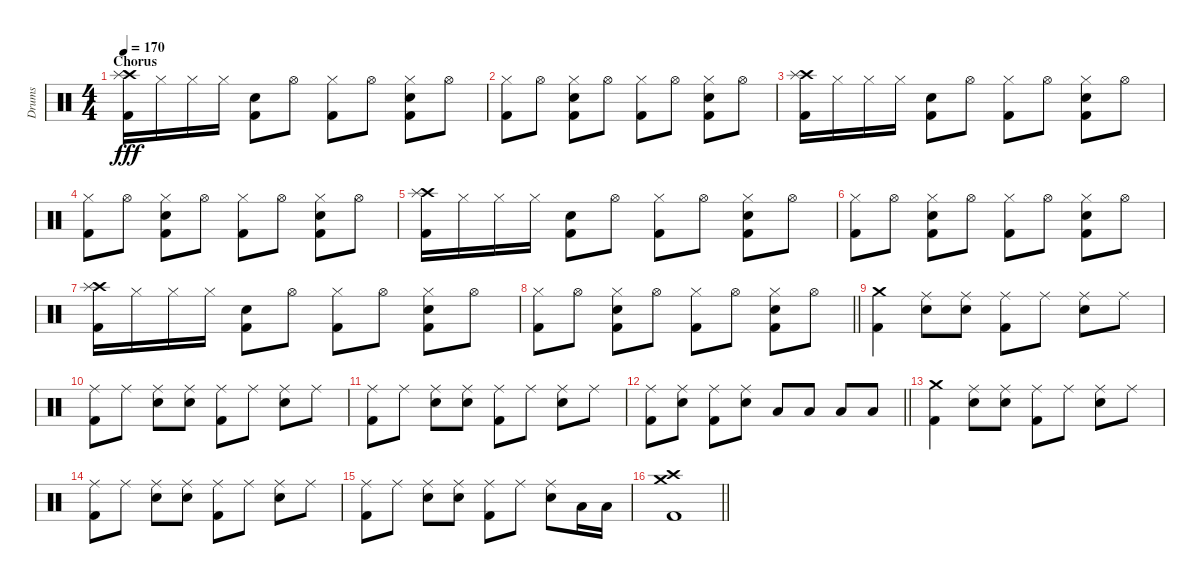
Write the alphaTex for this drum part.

\track ("Drums" "Drums") {instrument percussion}
\staff {score}
\articulation defaults
\ts (4 4)
\section ("" "Chorus")
\tempo 170
\clef neutral
\ks c
("Crash high (hit)" "Kick (hit) 2" "Splash (hit)").16{dy fff} "Hi-Hat (closed)".16 "Hi-Hat (closed)".16 "Hi-Hat (closed)".16 ("Electric Snare (hit)" "Kick (hit) 2").8 "Hi-Hat (open)".8 ("Hi-Hat (closed)" "Kick (hit) 2").8 "Hi-Hat (open)".8 ("Hi-Hat (closed)" "Electric Snare (hit)" "Kick (hit) 2").8 "Hi-Hat (open)".8 |
("Hi-Hat (closed)" "Kick (hit) 2").8 "Hi-Hat (open)".8 ("Hi-Hat (closed)" "Electric Snare (hit)" "Kick (hit) 2").8 "Hi-Hat (open)".8 ("Hi-Hat (closed)" "Kick (hit) 2").8 "Hi-Hat (open)".8 ("Hi-Hat (closed)" "Electric Snare (hit)" "Kick (hit) 2").8 "Hi-Hat (open)".8 |
("Crash high (hit)" "Kick (hit) 2" "Splash (hit)").16 "Hi-Hat (closed)".16 "Hi-Hat (closed)".16 "Hi-Hat (closed)".16 ("Electric Snare (hit)" "Kick (hit) 2").8 "Hi-Hat (open)".8 ("Hi-Hat (closed)" "Kick (hit) 2").8 "Hi-Hat (open)".8 ("Hi-Hat (closed)" "Electric Snare (hit)" "Kick (hit) 2").8 "Hi-Hat (open)".8 |
("Hi-Hat (closed)" "Kick (hit) 2").8 "Hi-Hat (open)".8 ("Hi-Hat (closed)" "Electric Snare (hit)" "Kick (hit) 2").8 "Hi-Hat (open)".8 ("Hi-Hat (closed)" "Kick (hit) 2").8 "Hi-Hat (open)".8 ("Hi-Hat (closed)" "Electric Snare (hit)" "Kick (hit) 2").8 "Hi-Hat (open)".8 |
("Crash high (hit)" "Kick (hit) 2" "Splash (hit)").16 "Hi-Hat (closed)".16 "Hi-Hat (closed)".16 "Hi-Hat (closed)".16 ("Electric Snare (hit)" "Kick (hit) 2").8 "Hi-Hat (open)".8 ("Hi-Hat (closed)" "Kick (hit) 2").8 "Hi-Hat (open)".8 ("Hi-Hat (closed)" "Electric Snare (hit)" "Kick (hit) 2").8 "Hi-Hat (open)".8 |
("Hi-Hat (closed)" "Kick (hit) 2").8 "Hi-Hat (open)".8 ("Hi-Hat (closed)" "Electric Snare (hit)" "Kick (hit) 2").8 "Hi-Hat (open)".8 ("Hi-Hat (closed)" "Kick (hit) 2").8 "Hi-Hat (open)".8 ("Hi-Hat (closed)" "Electric Snare (hit)" "Kick (hit) 2").8 "Hi-Hat (open)".8 |
("Crash high (hit)" "Kick (hit) 2" "Splash (hit)").16 "Hi-Hat (closed)".16 "Hi-Hat (closed)".16 "Hi-Hat (closed)".16 ("Electric Snare (hit)" "Kick (hit) 2").8 "Hi-Hat (open)".8 ("Hi-Hat (closed)" "Kick (hit) 2").8 "Hi-Hat (open)".8 ("Hi-Hat (closed)" "Electric Snare (hit)" "Kick (hit) 2").8 "Hi-Hat (open)".8 |
\barLineRight lightlight
("Hi-Hat (closed)" "Kick (hit) 2").8 "Hi-Hat (open)".8 ("Hi-Hat (closed)" "Electric Snare (hit)" "Kick (hit) 2").8 "Hi-Hat (open)".8 ("Hi-Hat (closed)" "Kick (hit) 2").8 "Hi-Hat (open)".8 ("Hi-Hat (closed)" "Electric Snare (hit)" "Kick (hit) 2").8 "Hi-Hat (open)".8 |
("Crash medium (hit)" "Kick (hit) 2").4 ("Ride (middle)" "Electric Snare (hit)").8 ("Ride (middle)" "Electric Snare (hit)").8 ("Ride (middle)" "Kick (hit) 2").8 "Ride (middle)".8 ("Ride (middle)" "Electric Snare (hit)").8 "Ride (middle)".8 |
("Ride (middle)" "Kick (hit) 2").8 "Ride (middle)".8 ("Ride (middle)" "Electric Snare (hit)").8 ("Ride (middle)" "Electric Snare (hit)").8 ("Ride (middle)" "Kick (hit) 2").8 "Ride (middle)".8 ("Ride (middle)" "Electric Snare (hit)").8 "Ride (middle)".8 |
("Ride (middle)" "Kick (hit) 2").8 "Ride (middle)".8 ("Ride (middle)" "Electric Snare (hit)").8 ("Ride (middle)" "Electric Snare (hit)").8 ("Ride (middle)" "Kick (hit) 2").8 "Ride (middle)".8 ("Ride (middle)" "Electric Snare (hit)").8 "Ride (middle)".8 |
\barLineRight lightlight
("Ride (middle)" "Kick (hit) 2").8 ("Ride (middle)" "Electric Snare (hit)").8 ("Ride (middle)" "Kick (hit) 2").8 ("Ride (middle)" "Electric Snare (hit)").8 "Low Tom (hit)".8 "Low Tom (hit)".8 "Low Floor Tom (hit)".8 "Low Floor Tom (hit)".8 |
("Crash medium (hit)" "Kick (hit) 2").4 ("Ride (middle)" "Electric Snare (hit)").8 ("Ride (middle)" "Electric Snare (hit)").8 ("Ride (middle)" "Kick (hit) 2").8 "Ride (middle)".8 ("Ride (middle)" "Electric Snare (hit)").8 "Ride (middle)".8 |
("Ride (middle)" "Kick (hit) 2").8 "Ride (middle)".8 ("Ride (middle)" "Electric Snare (hit)").8 ("Ride (middle)" "Electric Snare (hit)").8 ("Ride (middle)" "Kick (hit) 2").8 "Ride (middle)".8 ("Ride (middle)" "Electric Snare (hit)").8 "Ride (middle)".8 |
("Ride (middle)" "Kick (hit) 2").8 "Ride (middle)".8 ("Ride (middle)" "Electric Snare (hit)").8 ("Ride (middle)" "Electric Snare (hit)").8 ("Ride (middle)" "Kick (hit) 2").8 "Ride (middle)".8 ("Ride (middle)" "Electric Snare (hit)").8 "Low Floor Tom (hit)".16 "Low Tom (hit)".16 |
\barLineRight lightlight
("Crash medium (hit)" "Crash high (hit)" "Kick (hit) 2").1
